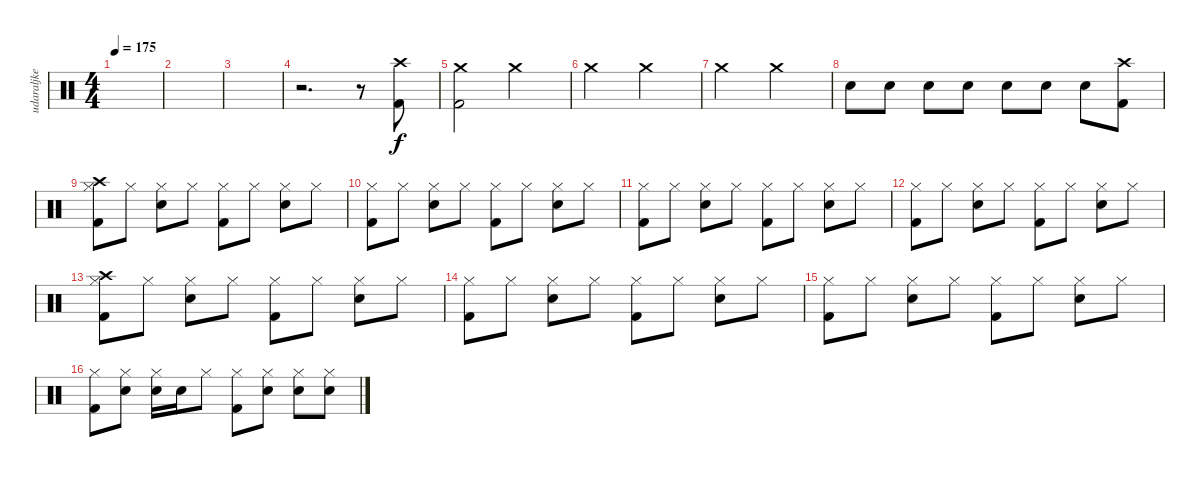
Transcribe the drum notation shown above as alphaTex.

\track ("udaraljke" "udaraljke") {instrument percussion}
\staff {score}
\articulation defaults
\ts (4 4)
\tempo 175
\clef neutral
\ks c
|
|
|
r.2{d} r.8 ("Crash high (hit)" "Kick (hit) 2").8 |
("Crash medium (hit)" "Kick (hit) 2").2 "Crash medium (hit)".2 |
"Crash medium (hit)".2 "Crash medium (hit)".2 |
"Crash medium (hit)".2 "Crash medium (hit)".2 |
"Electric Snare (hit)".8 "Electric Snare (hit)".8 "Electric Snare (hit)".8 "Electric Snare (hit)".8 "Electric Snare (hit)".8 "Electric Snare (hit)".8 "Electric Snare (hit)".8 ("Crash high (hit)" "Kick (hit) 2").8 |
("Crash high (hit)" "Hi-Hat (closed)" "Kick (hit) 2").8 "Hi-Hat (closed)".8 ("Hi-Hat (closed)" "Snare (hit) 2").8 "Hi-Hat (closed)".8 ("Hi-Hat (closed)" "Kick (hit) 2").8 "Hi-Hat (closed)".8 ("Hi-Hat (closed)" "Snare (hit) 2").8 "Hi-Hat (closed)".8 |
("Hi-Hat (closed)" "Kick (hit) 2").8 "Hi-Hat (closed)".8 ("Hi-Hat (closed)" "Snare (hit) 2").8 "Hi-Hat (closed)".8 ("Hi-Hat (closed)" "Kick (hit) 2").8 "Hi-Hat (closed)".8 ("Hi-Hat (closed)" "Snare (hit) 2").8 "Hi-Hat (closed)".8 |
("Hi-Hat (closed)" "Kick (hit) 2").8 "Hi-Hat (closed)".8 ("Hi-Hat (closed)" "Snare (hit) 2").8 "Hi-Hat (closed)".8 ("Hi-Hat (closed)" "Kick (hit) 2").8 "Hi-Hat (closed)".8 ("Hi-Hat (closed)" "Snare (hit) 2").8 "Hi-Hat (closed)".8 |
("Hi-Hat (closed)" "Kick (hit) 2").8 "Hi-Hat (closed)".8 ("Hi-Hat (closed)" "Snare (hit) 2").8 "Hi-Hat (closed)".8 ("Hi-Hat (closed)" "Kick (hit) 2").8 "Hi-Hat (closed)".8 ("Hi-Hat (closed)" "Snare (hit) 2").8 "Hi-Hat (closed)".8 |
("Crash high (hit)" "Hi-Hat (closed)" "Kick (hit) 2").8 "Hi-Hat (closed)".8 ("Hi-Hat (closed)" "Snare (hit) 2").8 "Hi-Hat (closed)".8 ("Hi-Hat (closed)" "Kick (hit) 2").8 "Hi-Hat (closed)".8 ("Hi-Hat (closed)" "Snare (hit) 2").8 "Hi-Hat (closed)".8 |
("Hi-Hat (closed)" "Kick (hit) 2").8 "Hi-Hat (closed)".8 ("Hi-Hat (closed)" "Snare (hit) 2").8 "Hi-Hat (closed)".8 ("Hi-Hat (closed)" "Kick (hit) 2").8 "Hi-Hat (closed)".8 ("Hi-Hat (closed)" "Snare (hit) 2").8 "Hi-Hat (closed)".8 |
("Hi-Hat (closed)" "Kick (hit) 2").8 "Hi-Hat (closed)".8 ("Hi-Hat (closed)" "Snare (hit) 2").8 "Hi-Hat (closed)".8 ("Hi-Hat (closed)" "Kick (hit) 2").8 "Hi-Hat (closed)".8 ("Hi-Hat (closed)" "Snare (hit) 2").8 "Hi-Hat (closed)".8 |
("Hi-Hat (closed)" "Kick (hit) 2").8 ("Hi-Hat (closed)" "Snare (hit) 2").8 ("Hi-Hat (closed)" "Snare (hit) 2").16 "Snare (hit) 2".16 "Hi-Hat (closed)".8 ("Hi-Hat (closed)" "Kick (hit) 2").8 ("Hi-Hat (closed)" "Snare (hit) 2").8 ("Hi-Hat (closed)" "Snare (hit) 2").8 ("Hi-Hat (closed)" "Snare (hit) 2").8
